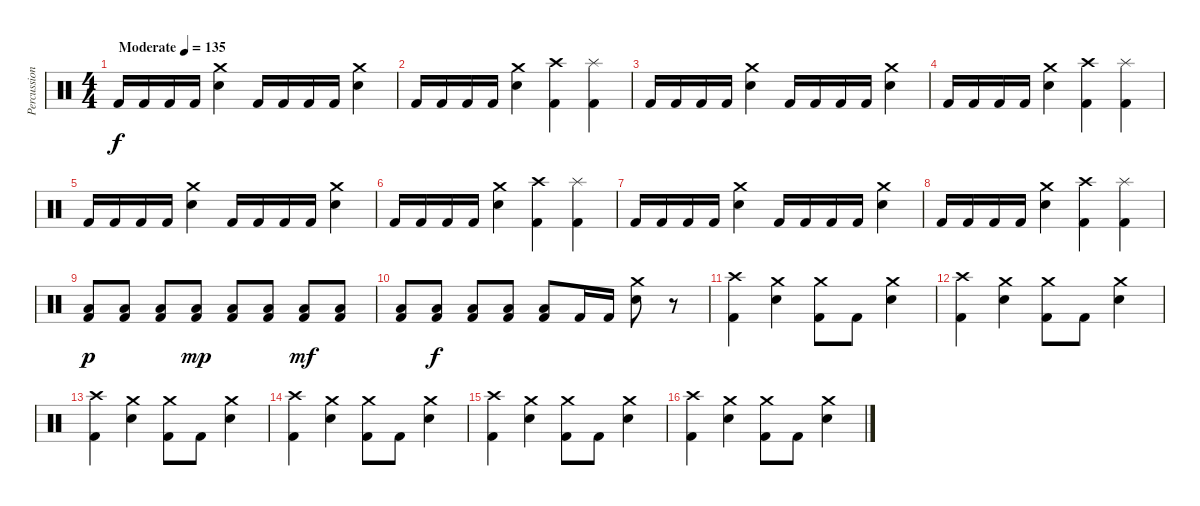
\track ("Percussion" "Percussion") {instrument percussion}
\staff {score}
\articulation defaults
\ts (4 4)
\tempo (135 "Moderate")
\clef neutral
\ks c "Kick (hit) 2".16{dy f} "Kick (hit) 2".16 "Kick (hit) 2".16 "Kick (hit) 2".16
("Snare (hit) 2" "Crash medium (hit)").4 "Kick (hit) 2".16 "Kick (hit) 2".16 "Kick (hit) 2".16 "Kick (hit) 2".16 ("Snare (hit) 2" "Crash medium (hit)").4 |
"Kick (hit) 2".16 "Kick (hit) 2".16 "Kick (hit) 2".16 "Kick (hit) 2".16 ("Snare (hit) 2" "Crash medium (hit)").4 ("Kick (hit) 2" "Crash high (hit)").4 ("Kick (hit) 2" "Splash (hit)").4 |
"Kick (hit) 2".16 "Kick (hit) 2".16 "Kick (hit) 2".16 "Kick (hit) 2".16 ("Snare (hit) 2" "Crash medium (hit)").4 "Kick (hit) 2".16 "Kick (hit) 2".16 "Kick (hit) 2".16 "Kick (hit) 2".16 ("Snare (hit) 2" "Crash medium (hit)").4 |
"Kick (hit) 2".16 "Kick (hit) 2".16 "Kick (hit) 2".16 "Kick (hit) 2".16 ("Snare (hit) 2" "Crash medium (hit)").4 ("Kick (hit) 2" "Crash high (hit)").4 ("Kick (hit) 2" "Splash (hit)").4 |
"Kick (hit) 2".16 "Kick (hit) 2".16 "Kick (hit) 2".16 "Kick (hit) 2".16 ("Snare (hit) 2" "Crash medium (hit)").4 "Kick (hit) 2".16 "Kick (hit) 2".16 "Kick (hit) 2".16 "Kick (hit) 2".16 ("Snare (hit) 2" "Crash medium (hit)").4 |
"Kick (hit) 2".16 "Kick (hit) 2".16 "Kick (hit) 2".16 "Kick (hit) 2".16 ("Snare (hit) 2" "Crash medium (hit)").4 ("Kick (hit) 2" "Crash high (hit)").4 ("Kick (hit) 2" "Splash (hit)").4 |
"Kick (hit) 2".16 "Kick (hit) 2".16 "Kick (hit) 2".16 "Kick (hit) 2".16 ("Snare (hit) 2" "Crash medium (hit)").4 "Kick (hit) 2".16 "Kick (hit) 2".16 "Kick (hit) 2".16 "Kick (hit) 2".16 ("Snare (hit) 2" "Crash medium (hit)").4 |
"Kick (hit) 2".16 "Kick (hit) 2".16 "Kick (hit) 2".16 "Kick (hit) 2".16 ("Snare (hit) 2" "Crash medium (hit)").4 ("Kick (hit) 2" "Crash high (hit)").4 ("Kick (hit) 2" "Splash (hit)").4 |
("Kick (hit) 2" "Low Floor Tom (hit)").8{dy p} ("Kick (hit) 2" "Low Floor Tom (hit)").8 ("Kick (hit) 2" "Low Floor Tom (hit)").8 ("Kick (hit) 2" "Low Floor Tom (hit)").8{dy mp} ("Kick (hit) 2" "Low Floor Tom (hit)").8 ("Kick (hit) 2" "Low Floor Tom (hit)").8 ("Kick (hit) 2" "Low Floor Tom (hit)").8{dy mf} ("Kick (hit) 2" "Low Floor Tom (hit)").8 |
("Kick (hit) 2" "Low Floor Tom (hit)").8 ("Kick (hit) 2" "Low Floor Tom (hit)").8{dy f} ("Kick (hit) 2" "Low Floor Tom (hit)").8 ("Kick (hit) 2" "Low Floor Tom (hit)").8 ("Kick (hit) 2" "Low Floor Tom (hit)").8 "Kick (hit) 2".16 "Kick (hit) 2".16 ("Snare (hit) 2" "Crash medium (hit)").8 r.8 |
("Kick (hit) 2" "Crash high (hit)").4 ("Snare (hit) 2" "Crash medium (hit)").4 ("Kick (hit) 2" "Crash medium (hit)").8 "Kick (hit) 2".8 ("Snare (hit) 2" "Crash medium (hit)").4 |
("Kick (hit) 2" "Crash high (hit)").4 ("Snare (hit) 2" "Crash medium (hit)").4 ("Kick (hit) 2" "Crash medium (hit)").8 "Kick (hit) 2".8 ("Snare (hit) 2" "Crash medium (hit)").4 |
("Kick (hit) 2" "Crash high (hit)").4 ("Snare (hit) 2" "Crash medium (hit)").4 ("Kick (hit) 2" "Crash medium (hit)").8 "Kick (hit) 2".8 ("Snare (hit) 2" "Crash medium (hit)").4 |
("Kick (hit) 2" "Crash high (hit)").4 ("Snare (hit) 2" "Crash medium (hit)").4 ("Kick (hit) 2" "Crash medium (hit)").8 "Kick (hit) 2".8 ("Snare (hit) 2" "Crash medium (hit)").4 |
("Kick (hit) 2" "Crash high (hit)").4 ("Snare (hit) 2" "Crash medium (hit)").4 ("Kick (hit) 2" "Crash medium (hit)").8 "Kick (hit) 2".8 ("Snare (hit) 2" "Crash medium (hit)").4 |
("Kick (hit) 2" "Crash high (hit)").4 ("Snare (hit) 2" "Crash medium (hit)").4 ("Kick (hit) 2" "Crash medium (hit)").8 "Kick (hit) 2".8 ("Snare (hit) 2" "Crash medium (hit)").4
